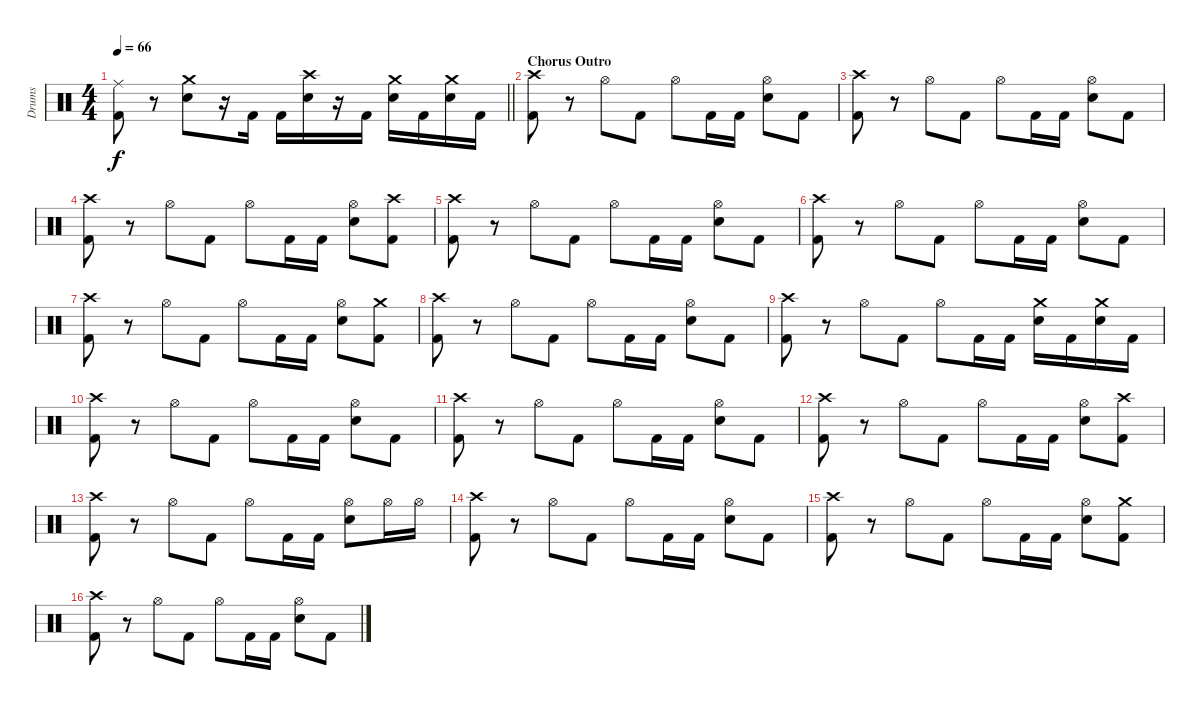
\track ("Drums" "Drums") {instrument percussion}
\staff {score}
\articulation defaults
\ts (4 4)
\tempo 66
\clef neutral
\barLineRight lightlight
\ks c
("Ride (middle)" "Kick (hit) 2").8{dy f} r.8 ("Crash medium (hit)" "Snare (hit) 2").8 r.16 "Kick (hit) 2".16 "Kick (hit) 2".16 ("Crash high (hit)" "Snare (hit) 2").16 r.16 "Kick (hit) 2".16 ("Crash medium (hit)" "Snare (hit) 2").16 "Kick (hit) 2".16 ("Crash medium (hit)" "Snare (hit) 2").16 "Kick (hit) 2".16 |
\section ("" "Chorus Outro")
("Crash high (hit)" "Kick (hit) 2").8 r.8 "Hi-Hat (open)".8 "Kick (hit) 2".8 "Hi-Hat (open)".8 "Kick (hit) 2".16 "Kick (hit) 2".16 ("Hi-Hat (open)" "Snare (hit) 2").8 "Kick (hit) 2".8 |
("Crash high (hit)" "Kick (hit) 2").8 r.8 "Hi-Hat (open)".8 "Kick (hit) 2".8 "Hi-Hat (open)".8 "Kick (hit) 2".16 "Kick (hit) 2".16 ("Hi-Hat (open)" "Snare (hit) 2").8 "Kick (hit) 2".8 |
("Crash high (hit)" "Kick (hit) 2").8 r.8 "Hi-Hat (open)".8 "Kick (hit) 2".8 "Hi-Hat (open)".8 "Kick (hit) 2".16 "Kick (hit) 2".16 ("Hi-Hat (open)" "Snare (hit) 2").8 ("Crash high (hit)" "Kick (hit) 2").8 |
("Crash high (hit)" "Kick (hit) 2").8 r.8 "Hi-Hat (open)".8 "Kick (hit) 2".8 "Hi-Hat (open)".8 "Kick (hit) 2".16 "Kick (hit) 2".16 ("Hi-Hat (open)" "Snare (hit) 2").8 "Kick (hit) 2".8 |
("Crash high (hit)" "Kick (hit) 2").8 r.8 "Hi-Hat (open)".8 "Kick (hit) 2".8 "Hi-Hat (open)".8 "Kick (hit) 2".16 "Kick (hit) 2".16 ("Hi-Hat (open)" "Snare (hit) 2").8 "Kick (hit) 2".8 |
("Crash high (hit)" "Kick (hit) 2").8 r.8 "Hi-Hat (open)".8 "Kick (hit) 2".8 "Hi-Hat (open)".8 "Kick (hit) 2".16 "Kick (hit) 2".16 ("Hi-Hat (open)" "Snare (hit) 2").8 ("Crash medium (hit)" "Kick (hit) 2").8 |
("Crash high (hit)" "Kick (hit) 2").8 r.8 "Hi-Hat (open)".8 "Kick (hit) 2".8 "Hi-Hat (open)".8 "Kick (hit) 2".16 "Kick (hit) 2".16 ("Hi-Hat (open)" "Snare (hit) 2").8 "Kick (hit) 2".8 |
("Crash high (hit)" "Kick (hit) 2").8 r.8 "Hi-Hat (open)".8 "Kick (hit) 2".8 "Hi-Hat (open)".8 "Kick (hit) 2".16 "Kick (hit) 2".16 ("Crash medium (hit)" "Snare (hit) 2").16 "Kick (hit) 2".16 ("Crash medium (hit)" "Snare (hit) 2").16 "Kick (hit) 2".16 |
("Crash high (hit)" "Kick (hit) 2").8 r.8 "Hi-Hat (open)".8 "Kick (hit) 2".8 "Hi-Hat (open)".8 "Kick (hit) 2".16 "Kick (hit) 2".16 ("Hi-Hat (open)" "Snare (hit) 2").8 "Kick (hit) 2".8 |
("Crash high (hit)" "Kick (hit) 2").8 r.8 "Hi-Hat (open)".8 "Kick (hit) 2".8 "Hi-Hat (open)".8 "Kick (hit) 2".16 "Kick (hit) 2".16 ("Hi-Hat (open)" "Snare (hit) 2").8 "Kick (hit) 2".8 |
("Crash high (hit)" "Kick (hit) 2").8 r.8 "Hi-Hat (open)".8 "Kick (hit) 2".8 "Hi-Hat (open)".8 "Kick (hit) 2".16 "Kick (hit) 2".16 ("Hi-Hat (open)" "Snare (hit) 2").8 ("Crash high (hit)" "Kick (hit) 2").8 |
("Crash high (hit)" "Kick (hit) 2").8 r.8 "Hi-Hat (open)".8 "Kick (hit) 2".8 "Hi-Hat (open)".8 "Kick (hit) 2".16 "Kick (hit) 2".16 ("Hi-Hat (open)" "Snare (hit) 2").8 "Hi-Hat (open)".16 "Hi-Hat (open)".16 |
("Crash high (hit)" "Kick (hit) 2").8 r.8 "Hi-Hat (open)".8 "Kick (hit) 2".8 "Hi-Hat (open)".8 "Kick (hit) 2".16 "Kick (hit) 2".16 ("Hi-Hat (open)" "Snare (hit) 2").8 "Kick (hit) 2".8 |
("Crash high (hit)" "Kick (hit) 2").8 r.8 "Hi-Hat (open)".8 "Kick (hit) 2".8 "Hi-Hat (open)".8 "Kick (hit) 2".16 "Kick (hit) 2".16 ("Hi-Hat (open)" "Snare (hit) 2").8 ("Crash medium (hit)" "Kick (hit) 2").8 |
("Crash high (hit)" "Kick (hit) 2").8 r.8 "Hi-Hat (open)".8 "Kick (hit) 2".8 "Hi-Hat (open)".8 "Kick (hit) 2".16 "Kick (hit) 2".16 ("Hi-Hat (open)" "Snare (hit) 2").8 "Kick (hit) 2".8
